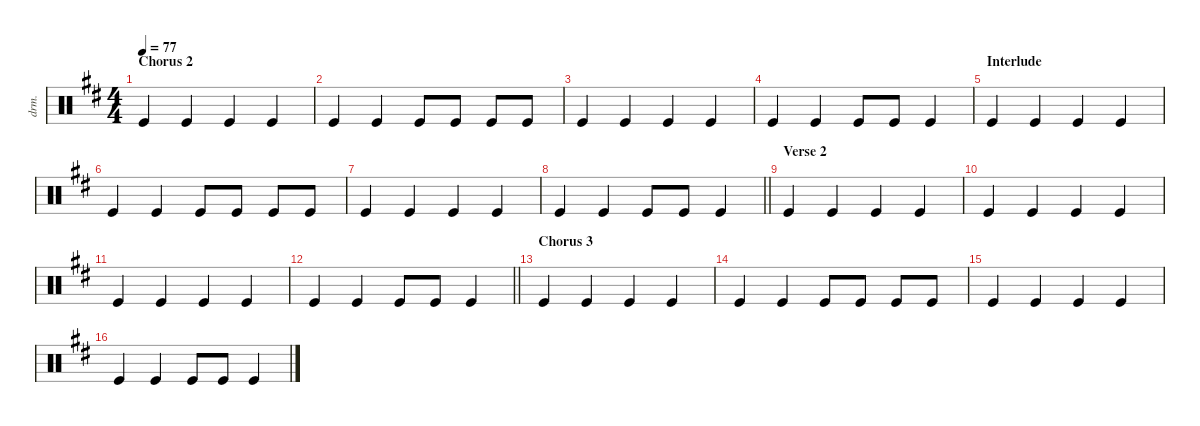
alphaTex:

\defaultSystemsLayout 4
\hideDynamics
\bracketExtendMode nobrackets
\otherSystemsTrackNameOrientation horizontal
\track ("Drums" "drm.") {defaultSystemsLayout 8 instrument percussion}
\staff {score}
\articulation defaults
\ts (4 4)
\section ("" "Chorus 2")
\tempo 77
\clef neutral
\ks bminor "Kick (hit)"{acc forcenatural}.4{dy mf beam Up} "Kick (hit)"{acc forcenatural}.4{beam Up} "Kick (hit)"{acc forcenatural}.4{beam Up} "Kick (hit)"{acc forcenatural}.4{beam Up}
|
"Kick (hit)"{acc forcenatural}.4{beam Up} "Kick (hit)"{acc forcenatural}.4{beam Up} "Kick (hit)"{acc forcenatural}.8{beam Up} "Kick (hit)"{acc forcenatural}.8{beam Up} "Kick (hit)"{acc forcenatural}.8{beam Up} "Kick (hit)"{acc forcenatural}.8{beam Up} |
"Kick (hit)"{acc forcenatural}.4{beam Up} "Kick (hit)"{acc forcenatural}.4{beam Up} "Kick (hit)"{acc forcenatural}.4{beam Up} "Kick (hit)"{acc forcenatural}.4{beam Up} |
"Kick (hit)"{acc forcenatural}.4{beam Up} "Kick (hit)"{acc forcenatural}.4{beam Up} "Kick (hit)"{acc forcenatural}.8{beam Up} "Kick (hit)"{acc forcenatural}.8{beam Up} "Kick (hit)"{acc forcenatural}.4{beam Up} |
\section ("" "Interlude")
"Kick (hit)"{acc forcenatural}.4{beam Up} "Kick (hit)"{acc forcenatural}.4{beam Up} "Kick (hit)"{acc forcenatural}.4{beam Up} "Kick (hit)"{acc forcenatural}.4{beam Up} |
"Kick (hit)"{acc forcenatural}.4{beam Up} "Kick (hit)"{acc forcenatural}.4{beam Up} "Kick (hit)"{acc forcenatural}.8{beam Up} "Kick (hit)"{acc forcenatural}.8{beam Up} "Kick (hit)"{acc forcenatural}.8{beam Up} "Kick (hit)"{acc forcenatural}.8{beam Up} |
"Kick (hit)"{acc forcenatural}.4{beam Up} "Kick (hit)"{acc forcenatural}.4{beam Up} "Kick (hit)"{acc forcenatural}.4{beam Up} "Kick (hit)"{acc forcenatural}.4{beam Up} |
\barLineRight lightlight "Kick (hit)"{acc forcenatural}.4{beam Up} "Kick (hit)"{acc forcenatural}.4{beam Up} "Kick (hit)"{acc forcenatural}.8{beam Up} "Kick (hit)"{acc forcenatural}.8{beam Up} "Kick (hit)"{acc forcenatural}.4{beam Up}
|
\section ("" "Verse 2")
"Kick (hit)"{acc forcenatural}.4{beam Up} "Kick (hit)"{acc forcenatural}.4{beam Up} "Kick (hit)"{acc forcenatural}.4{beam Up} "Kick (hit)"{acc forcenatural}.4{beam Up} |
"Kick (hit)"{acc forcenatural}.4{beam Up} "Kick (hit)"{acc forcenatural}.4{beam Up} "Kick (hit)"{acc forcenatural}.4{beam Up} "Kick (hit)"{acc forcenatural}.4{beam Up} |
"Kick (hit)"{acc forcenatural}.4{beam Up} "Kick (hit)"{acc forcenatural}.4{beam Up} "Kick (hit)"{acc forcenatural}.4{beam Up} "Kick (hit)"{acc forcenatural}.4{beam Up} |
\barLineRight lightlight "Kick (hit)"{acc forcenatural}.4{beam Up} "Kick (hit)"{acc forcenatural}.4{beam Up} "Kick (hit)"{acc forcenatural}.8{beam Up} "Kick (hit)"{acc forcenatural}.8{beam Up} "Kick (hit)"{acc forcenatural}.4{beam Up}
|
\section ("" "Chorus 3")
"Kick (hit)"{acc forcenatural}.4{beam Up} "Kick (hit)"{acc forcenatural}.4{beam Up} "Kick (hit)"{acc forcenatural}.4{beam Up} "Kick (hit)"{acc forcenatural}.4{beam Up} |
"Kick (hit)"{acc forcenatural}.4{beam Up} "Kick (hit)"{acc forcenatural}.4{beam Up} "Kick (hit)"{acc forcenatural}.8{beam Up} "Kick (hit)"{acc forcenatural}.8{beam Up} "Kick (hit)"{acc forcenatural}.8{beam Up} "Kick (hit)"{acc forcenatural}.8{beam Up} |
"Kick (hit)"{acc forcenatural}.4{beam Up} "Kick (hit)"{acc forcenatural}.4{beam Up} "Kick (hit)"{acc forcenatural}.4{beam Up} "Kick (hit)"{acc forcenatural}.4{beam Up} |
"Kick (hit)"{acc forcenatural}.4{beam Up} "Kick (hit)"{acc forcenatural}.4{beam Up} "Kick (hit)"{acc forcenatural}.8{beam Up} "Kick (hit)"{acc forcenatural}.8{beam Up} "Kick (hit)"{acc forcenatural}.4{beam Up}
